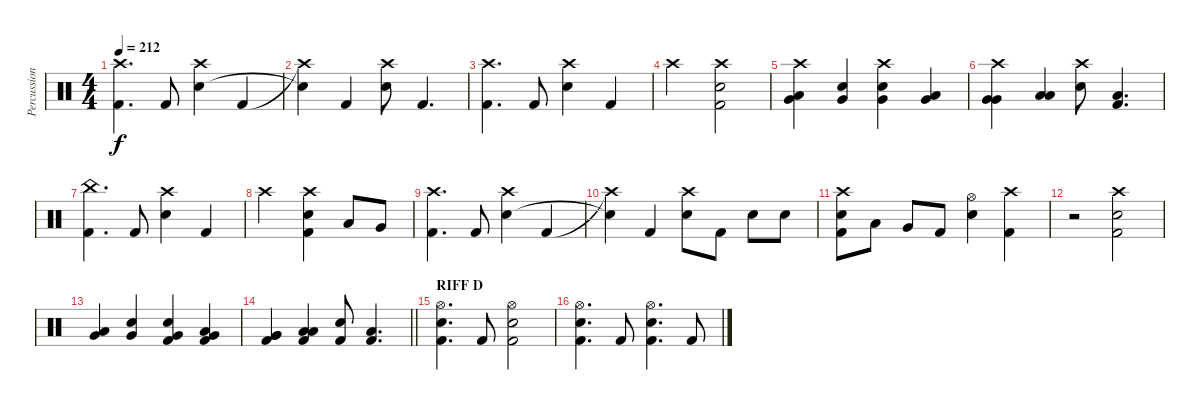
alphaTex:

\track ("Percussions" "Percussion") {instrument percussion}
\staff {score}
\articulation defaults
\ts (4 4)
\tempo 212
\clef neutral
\ks c
("Crash high (hit)" "Kick (hit) 2").4{d dy f} "Kick (hit) 2".8 ("Crash high (hit)" "Snare (hit) 2").4 "Kick (hit) 2".4 |
("Crash high (hit)"{t} "Snare (hit)"{t}).4 "Kick (hit) 2".4 ("Crash high (hit)" "Snare (hit) 2").8 "Kick (hit) 2".4{d} |
("Crash high (hit)" "Kick (hit) 2").4{d} "Kick (hit) 2".8 ("Crash high (hit)" "Snare (hit) 2").4 "Kick (hit) 2".4 |
"Crash high (hit)".2 ("Crash high (hit)" "Snare (hit) 2" "Kick (hit) 2").2 |
("Crash high (hit)" "Low Tom (hit)" "Very Low Tom (hit)").4 ("Snare (hit) 2" "Very Low Tom (hit)").4 ("Crash high (hit)" "Snare (hit) 2" "Very Low Tom (hit)").4 ("Low Tom (hit)" "Very Low Tom (hit)").4 |
("Crash high (hit)" "Very Low Tom (hit)" "Very Low Tom (hit)").4 ("Low Floor Tom (hit)" "Low Floor Tom (hit)").4 ("Crash high (hit)" "Snare (hit) 2").8 ("Low Floor Tom (hit)" "Kick (hit) 2").4{d} |
("China (hit)" "Kick (hit) 2").4{d} "Kick (hit) 2".8 ("Crash high (hit)" "Snare (hit) 2").4 "Kick (hit) 2".4 |
"Crash high (hit)".2 ("Crash high (hit)" "Snare (hit) 2" "Kick (hit) 2").4 "Low Tom (hit)".8 "Very Low Tom (hit)".8 |
("Crash high (hit)" "Kick (hit) 2").4{d} "Kick (hit) 2".8 ("Crash high (hit)" "Snare (hit) 2").4 "Kick (hit) 2".4 |
("Crash high (hit)"{t} "Snare (hit)"{t}).4 "Kick (hit) 2".4 ("Crash high (hit)" "Snare (hit) 2").8 "Kick (hit) 2".8 "Snare (hit) 2".8 "Snare (hit) 2".8 |
("Crash high (hit)" "Snare (hit) 2" "Kick (hit) 2").8 "Low Tom (hit)".8 "Very Low Tom (hit)".8 "Kick (hit) 2".8 ("Hi-Hat (open)" "Snare (hit) 2").4 ("Crash high (hit)" "Kick (hit) 2").4 |
r.2 ("Crash high (hit)" "Snare (hit) 2" "Kick (hit) 2").2 |
("Low Tom (hit)" "Very Low Tom (hit)").4 ("Snare (hit) 2" "Very Low Tom (hit)").4 ("Snare (hit) 2" "Very Low Tom (hit)" "Kick (hit) 2").4 ("Low Tom (hit)" "Very Low Tom (hit)" "Kick (hit) 2").4 |
\barLineRight lightlight
("Very Low Tom (hit)" "Very Low Tom (hit)" "Kick (hit) 2").4 ("Low Floor Tom (hit)" "Low Floor Tom (hit)" "Kick (hit) 2").4 ("Snare (hit) 2" "Kick (hit) 2").8 ("Low Floor Tom (hit)" "Kick (hit) 2").4{d} |
\section ("" "RIFF D")
("Hi-Hat (open)" "Snare (hit) 2" "Kick (hit) 2").4{d} "Kick (hit) 2".8 ("Hi-Hat (open)" "Snare (hit) 2" "Kick (hit) 2").2 |
("Hi-Hat (open)" "Snare (hit) 2" "Kick (hit) 2").4{d} "Kick (hit) 2".8 ("Hi-Hat (open)" "Snare (hit) 2" "Kick (hit) 2").4{d} "Kick (hit) 2".8
